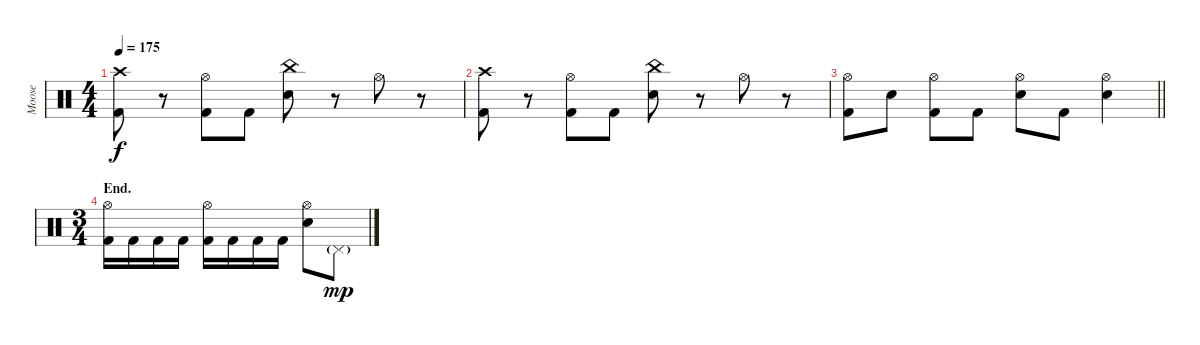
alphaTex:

\track ("Moose" "Moose") {instrument percussion}
\staff {score}
\articulation defaults
\ts (4 4)
\tempo 175
\clef neutral
\ks c
("Crash high (hit)" "Kick (hit) 2").8{dy f} r.8 ("Hi-Hat (open)" "Kick (hit) 2").8 "Kick (hit) 2".8 ("China (hit)" "Electric Snare (hit)").8 r.8 "Hi-Hat (open)".8 r.8 |
("Crash high (hit)" "Kick (hit) 2").8 r.8 ("Hi-Hat (open)" "Kick (hit) 2").8 "Kick (hit) 2".8 ("China (hit)" "Electric Snare (hit)").8 r.8 "Hi-Hat (open)".8 r.8 |
\barLineRight lightlight
("Hi-Hat (open)" "Kick (hit) 2").8 "Electric Snare (hit)".8 ("Hi-Hat (open)" "Kick (hit) 2").8 "Kick (hit) 2".8 ("Hi-Hat (open)" "Electric Snare (hit)").8 "Kick (hit) 2".8 ("Hi-Hat (open)" "Electric Snare (hit)").4 |
\ts (3 4)
\section ("" "End.")
("Hi-Hat (open)" "Kick (hit) 2").16 "Kick (hit) 2".16 "Kick (hit) 2".16 "Kick (hit) 2".16 ("Hi-Hat (open)" "Kick (hit) 2").16 "Kick (hit) 2".16 "Kick (hit) 2".16 "Kick (hit) 2".16 ("Hi-Hat (open)" "Electric Snare (hit)").8 "Pedal Hi-Hat (hit)"{g}.8{dy mp volume 0}
